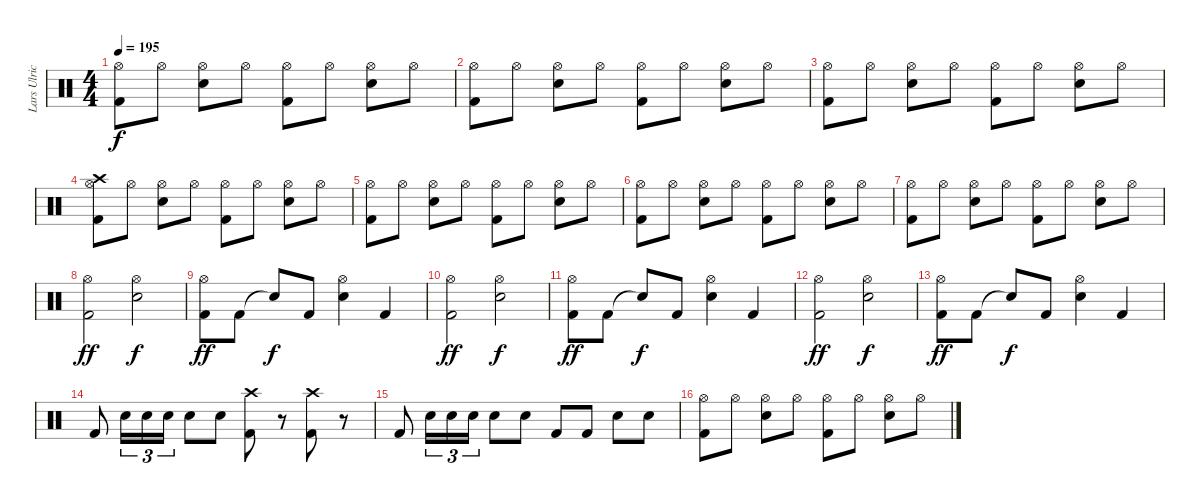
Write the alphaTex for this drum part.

\track ("Lars Ulrich" "Lars Ulric") {instrument percussion}
\staff {score}
\articulation defaults
\ts (4 4)
\tempo 195
\clef neutral
\ks c
("Kick (hit) 2" "Hi-Hat (open)").8{dy f} "Hi-Hat (open)".8 ("Snare (hit) 2" "Hi-Hat (open)").8 "Hi-Hat (open)".8 ("Kick (hit) 2" "Hi-Hat (open)").8 "Hi-Hat (open)".8 ("Snare (hit) 2" "Hi-Hat (open)").8 "Hi-Hat (open)".8 |
("Kick (hit) 2" "Hi-Hat (open)").8 "Hi-Hat (open)".8 ("Snare (hit) 2" "Hi-Hat (open)").8 "Hi-Hat (open)".8 ("Kick (hit) 2" "Hi-Hat (open)").8 "Hi-Hat (open)".8 ("Snare (hit) 2" "Hi-Hat (open)").8 "Hi-Hat (open)".8 |
("Kick (hit) 2" "Hi-Hat (open)").8 "Hi-Hat (open)".8 ("Snare (hit) 2" "Hi-Hat (open)").8 "Hi-Hat (open)".8 ("Kick (hit) 2" "Hi-Hat (open)").8 "Hi-Hat (open)".8 ("Snare (hit) 2" "Hi-Hat (open)").8 "Hi-Hat (open)".8 |
("Kick (hit) 2" "Hi-Hat (open)" "Crash high (hit)").8 "Hi-Hat (open)".8 ("Snare (hit) 2" "Hi-Hat (open)").8 "Hi-Hat (open)".8 ("Kick (hit) 2" "Hi-Hat (open)").8 "Hi-Hat (open)".8 ("Snare (hit) 2" "Hi-Hat (open)").8 "Hi-Hat (open)".8 |
("Kick (hit) 2" "Hi-Hat (open)").8 "Hi-Hat (open)".8 ("Snare (hit) 2" "Hi-Hat (open)").8 "Hi-Hat (open)".8 ("Kick (hit) 2" "Hi-Hat (open)").8 "Hi-Hat (open)".8 ("Snare (hit) 2" "Hi-Hat (open)").8 "Hi-Hat (open)".8 |
("Kick (hit) 2" "Hi-Hat (open)").8 "Hi-Hat (open)".8 ("Snare (hit) 2" "Hi-Hat (open)").8 "Hi-Hat (open)".8 ("Kick (hit) 2" "Hi-Hat (open)").8 "Hi-Hat (open)".8 ("Snare (hit) 2" "Hi-Hat (open)").8 "Hi-Hat (open)".8 |
("Kick (hit) 2" "Hi-Hat (open)").8 "Hi-Hat (open)".8 ("Snare (hit) 2" "Hi-Hat (open)").8 "Hi-Hat (open)".8 ("Kick (hit) 2" "Hi-Hat (open)").8 "Hi-Hat (open)".8 ("Snare (hit) 2" "Hi-Hat (open)").8 "Hi-Hat (open)".8 |
("Kick (hit) 2" "Hi-Hat (open)").2{dy ff} ("Snare (hit) 2" "Hi-Hat (open)").2{dy f} |
("Kick (hit) 2" "Hi-Hat (open)").8{dy ff} "Kick (hit) 2".8 "Snare (hit)"{t}.8{dy f} "Kick (hit) 2".8 ("Snare (hit) 2" "Hi-Hat (open)").4 "Kick (hit) 2".4 |
("Kick (hit) 2" "Hi-Hat (open)").2{dy ff} ("Snare (hit) 2" "Hi-Hat (open)").2{dy f} |
("Kick (hit) 2" "Hi-Hat (open)").8{dy ff} "Kick (hit) 2".8 "Snare (hit)"{t}.8{dy f} "Kick (hit) 2".8 ("Snare (hit) 2" "Hi-Hat (open)").4 "Kick (hit) 2".4 |
("Kick (hit) 2" "Hi-Hat (open)").2{dy ff} ("Snare (hit) 2" "Hi-Hat (open)").2{dy f} |
("Kick (hit) 2" "Hi-Hat (open)").8{dy ff} "Kick (hit) 2".8 "Snare (hit)"{t}.8{dy f} "Kick (hit) 2".8 ("Snare (hit) 2" "Hi-Hat (open)").4 "Kick (hit) 2".4 |
"Kick (hit) 2".8 "Snare (hit) 2".16{tu (3 2)} "Snare (hit) 2".16{tu (3 2)} "Snare (hit) 2".16{tu (3 2)} "Snare (hit) 2".8 "Snare (hit) 2".8 ("Crash high (hit)" "Kick (hit) 2").8 r.8 ("Crash high (hit)" "Kick (hit) 2").8 r.8 |
"Kick (hit) 2".8 "Snare (hit) 2".16{tu (3 2)} "Snare (hit) 2".16{tu (3 2)} "Snare (hit) 2".16{tu (3 2)} "Snare (hit) 2".8 "Snare (hit) 2".8 "Kick (hit) 2".8 "Kick (hit) 2".8 "Snare (hit) 2".8 "Snare (hit) 2".8 |
("Kick (hit) 2" "Hi-Hat (open)").8 "Hi-Hat (open)".8 ("Snare (hit) 2" "Hi-Hat (open)").8 "Hi-Hat (open)".8 ("Kick (hit) 2" "Hi-Hat (open)").8 "Hi-Hat (open)".8 ("Snare (hit) 2" "Hi-Hat (open)").8 "Hi-Hat (open)".8
